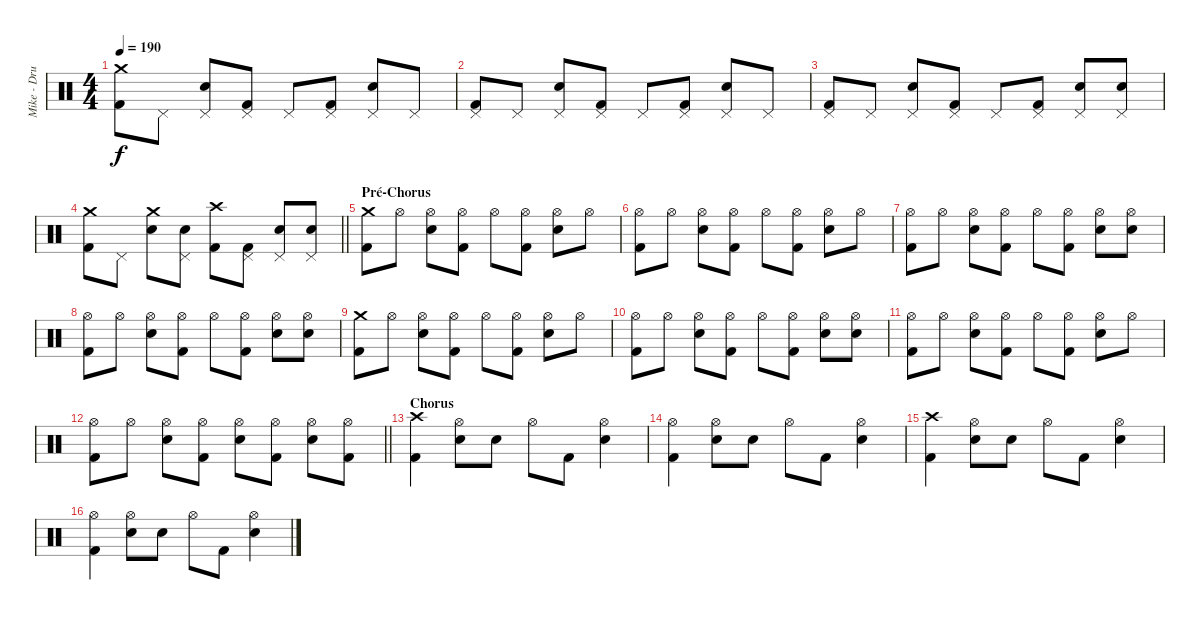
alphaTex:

\track ("Mike - Drums" "Mike - Dru") {instrument percussion}
\staff {score}
\articulation defaults
\ts (4 4)
\tempo 190
\clef neutral
\ks c
("Crash medium (hit)" "Kick (hit) 2").8{dy f} "Pedal Hi-Hat (hit)".8 ("Pedal Hi-Hat (hit)" "Electric Snare (hit)").8 ("Pedal Hi-Hat (hit)" "Kick (hit) 2").8 "Pedal Hi-Hat (hit)".8 ("Pedal Hi-Hat (hit)" "Kick (hit) 2").8 ("Pedal Hi-Hat (hit)" "Electric Snare (hit)").8 "Pedal Hi-Hat (hit)".8 |
("Pedal Hi-Hat (hit)" "Kick (hit) 2").8 "Pedal Hi-Hat (hit)".8 ("Pedal Hi-Hat (hit)" "Electric Snare (hit)").8 ("Pedal Hi-Hat (hit)" "Kick (hit) 2").8 "Pedal Hi-Hat (hit)".8 ("Pedal Hi-Hat (hit)" "Kick (hit) 2").8 ("Pedal Hi-Hat (hit)" "Electric Snare (hit)").8 "Pedal Hi-Hat (hit)".8 |
("Pedal Hi-Hat (hit)" "Kick (hit) 2").8 "Pedal Hi-Hat (hit)".8 ("Pedal Hi-Hat (hit)" "Electric Snare (hit)").8 ("Pedal Hi-Hat (hit)" "Kick (hit) 2").8 "Pedal Hi-Hat (hit)".8 ("Pedal Hi-Hat (hit)" "Kick (hit) 2").8 ("Pedal Hi-Hat (hit)" "Electric Snare (hit)").8 ("Pedal Hi-Hat (hit)" "Electric Snare (hit)").8 |
\barLineRight lightlight
("Crash medium (hit)" "Kick (hit) 2").8 "Pedal Hi-Hat (hit)".8 ("Crash medium (hit)" "Electric Snare (hit)").8 ("Pedal Hi-Hat (hit)" "Electric Snare (hit)").8 ("Crash high (hit)" "Kick (hit) 2").8 ("Pedal Hi-Hat (hit)" "Kick (hit) 2").8 ("Pedal Hi-Hat (hit)" "Electric Snare (hit)").8 ("Pedal Hi-Hat (hit)" "Electric Snare (hit)").8 |
\section ("" "Pré-Chorus")
("Crash medium (hit)" "Kick (hit) 2").8 "Hi-Hat (open)".8 ("Hi-Hat (open)" "Electric Snare (hit)").8 ("Hi-Hat (open)" "Kick (hit) 2").8 "Hi-Hat (open)".8 ("Hi-Hat (open)" "Kick (hit) 2").8 ("Hi-Hat (open)" "Electric Snare (hit)").8 "Hi-Hat (open)".8 |
("Hi-Hat (open)" "Kick (hit) 2").8 "Hi-Hat (open)".8 ("Hi-Hat (open)" "Electric Snare (hit)").8 ("Hi-Hat (open)" "Kick (hit) 2").8 "Hi-Hat (open)".8 ("Hi-Hat (open)" "Kick (hit) 2").8 ("Hi-Hat (open)" "Electric Snare (hit)").8 "Hi-Hat (open)".8 |
("Hi-Hat (open)" "Kick (hit) 2").8 "Hi-Hat (open)".8 ("Hi-Hat (open)" "Electric Snare (hit)").8 ("Hi-Hat (open)" "Kick (hit) 2").8 "Hi-Hat (open)".8 ("Hi-Hat (open)" "Kick (hit) 2").8 ("Hi-Hat (open)" "Electric Snare (hit)").8 ("Hi-Hat (open)" "Electric Snare (hit)").8 |
("Hi-Hat (open)" "Kick (hit) 2").8 "Hi-Hat (open)".8 ("Hi-Hat (open)" "Electric Snare (hit)").8 ("Hi-Hat (open)" "Kick (hit) 2").8 "Hi-Hat (open)".8 ("Hi-Hat (open)" "Kick (hit) 2").8 ("Hi-Hat (open)" "Electric Snare (hit)").8 ("Hi-Hat (open)" "Electric Snare (hit)").8 |
("Crash medium (hit)" "Kick (hit) 2").8 "Hi-Hat (open)".8 ("Hi-Hat (open)" "Electric Snare (hit)").8 ("Hi-Hat (open)" "Kick (hit) 2").8 "Hi-Hat (open)".8 ("Hi-Hat (open)" "Kick (hit) 2").8 ("Hi-Hat (open)" "Electric Snare (hit)").8 "Hi-Hat (open)".8 |
("Hi-Hat (open)" "Kick (hit) 2").8 "Hi-Hat (open)".8 ("Hi-Hat (open)" "Electric Snare (hit)").8 ("Hi-Hat (open)" "Kick (hit) 2").8 "Hi-Hat (open)".8 ("Hi-Hat (open)" "Kick (hit) 2").8 ("Hi-Hat (open)" "Electric Snare (hit)").8 ("Hi-Hat (open)" "Electric Snare (hit)").8 |
("Hi-Hat (open)" "Kick (hit) 2").8 "Hi-Hat (open)".8 ("Hi-Hat (open)" "Electric Snare (hit)").8 ("Hi-Hat (open)" "Kick (hit) 2").8 "Hi-Hat (open)".8 ("Hi-Hat (open)" "Kick (hit) 2").8 ("Hi-Hat (open)" "Electric Snare (hit)").8 "Hi-Hat (open)".8 |
\barLineRight lightlight
("Hi-Hat (open)" "Kick (hit) 2").8 "Hi-Hat (open)".8 ("Hi-Hat (open)" "Electric Snare (hit)").8 ("Hi-Hat (open)" "Kick (hit) 2").8 ("Hi-Hat (open)" "Electric Snare (hit)").8 ("Hi-Hat (open)" "Kick (hit) 2").8 ("Hi-Hat (open)" "Electric Snare (hit)").8 ("Hi-Hat (open)" "Kick (hit) 2").8 |
\section ("" "Chorus")
("Crash high (hit)" "Kick (hit) 2").4 ("Hi-Hat (open)" "Electric Snare (hit)").8 "Electric Snare (hit)".8 "Hi-Hat (open)".8 "Kick (hit) 2".8 ("Hi-Hat (open)" "Electric Snare (hit)").4 |
("Hi-Hat (open)" "Kick (hit) 2").4 ("Hi-Hat (open)" "Electric Snare (hit)").8 "Electric Snare (hit)".8 "Hi-Hat (open)".8 "Kick (hit) 2".8 ("Hi-Hat (open)" "Electric Snare (hit)").4 |
("Crash high (hit)" "Kick (hit) 2").4 ("Hi-Hat (open)" "Electric Snare (hit)").8 "Electric Snare (hit)".8 "Hi-Hat (open)".8 "Kick (hit) 2".8 ("Hi-Hat (open)" "Electric Snare (hit)").4 |
("Hi-Hat (open)" "Kick (hit) 2").4 ("Hi-Hat (open)" "Electric Snare (hit)").8 "Electric Snare (hit)".8 "Hi-Hat (open)".8 "Kick (hit) 2".8 ("Hi-Hat (open)" "Electric Snare (hit)").4
